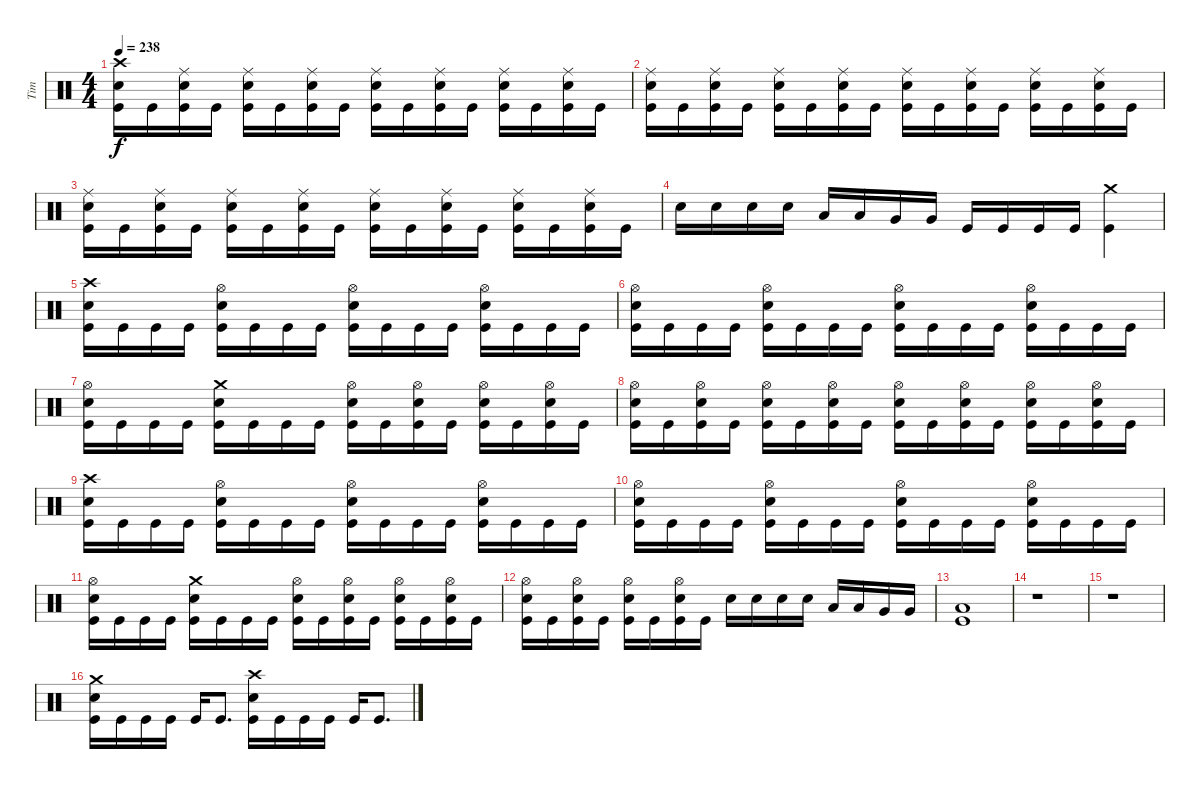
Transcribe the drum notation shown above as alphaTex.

\track ("Tim" "Tim") {instrument percussion}
\staff {score}
\articulation defaults
\ts (4 4)
\tempo 238
\clef neutral
\ks c
("Crash high (hit)" "Electric Snare (hit)" "Kick (hit)").16{dy f} "Kick (hit)".16 ("Ride (middle)" "Electric Snare (hit)" "Kick (hit)").16 "Kick (hit)".16 ("Ride (middle)" "Electric Snare (hit)" "Kick (hit)").16 "Kick (hit)".16 ("Ride (middle)" "Electric Snare (hit)" "Kick (hit)").16 "Kick (hit)".16 ("Ride (middle)" "Electric Snare (hit)" "Kick (hit)").16 "Kick (hit)".16 ("Ride (middle)" "Electric Snare (hit)" "Kick (hit)").16 "Kick (hit)".16 ("Ride (middle)" "Electric Snare (hit)" "Kick (hit)").16 "Kick (hit)".16 ("Ride (middle)" "Electric Snare (hit)" "Kick (hit)").16 "Kick (hit)".16 |
("Ride (middle)" "Electric Snare (hit)" "Kick (hit)").16 "Kick (hit)".16 ("Ride (middle)" "Electric Snare (hit)" "Kick (hit)").16 "Kick (hit)".16 ("Ride (middle)" "Electric Snare (hit)" "Kick (hit)").16 "Kick (hit)".16 ("Ride (middle)" "Electric Snare (hit)" "Kick (hit)").16 "Kick (hit)".16 ("Ride (middle)" "Electric Snare (hit)" "Kick (hit)").16 "Kick (hit)".16 ("Ride (middle)" "Electric Snare (hit)" "Kick (hit)").16 "Kick (hit)".16 ("Ride (middle)" "Electric Snare (hit)" "Kick (hit)").16 "Kick (hit)".16 ("Ride (middle)" "Electric Snare (hit)" "Kick (hit)").16 "Kick (hit)".16 |
("Ride (middle)" "Electric Snare (hit)" "Kick (hit)").16 "Kick (hit)".16 ("Ride (middle)" "Electric Snare (hit)" "Kick (hit)").16 "Kick (hit)".16 ("Ride (middle)" "Electric Snare (hit)" "Kick (hit)").16 "Kick (hit)".16 ("Ride (middle)" "Electric Snare (hit)" "Kick (hit)").16 "Kick (hit)".16 ("Ride (middle)" "Electric Snare (hit)" "Kick (hit)").16 "Kick (hit)".16 ("Ride (middle)" "Electric Snare (hit)" "Kick (hit)").16 "Kick (hit)".16 ("Ride (middle)" "Electric Snare (hit)" "Kick (hit)").16 "Kick (hit)".16 ("Ride (middle)" "Electric Snare (hit)" "Kick (hit)").16 "Kick (hit)".16 |
"Electric Snare (hit)".16 "Electric Snare (hit)".16 "Electric Snare (hit)".16 "Electric Snare (hit)".16 "Low Tom (hit)".16 "Low Tom (hit)".16 "Very Low Tom (hit)".16 "Very Low Tom (hit)".16 "Kick (hit)".16 "Kick (hit)".16 "Kick (hit)".16 "Kick (hit)".16 ("Crash medium (hit)" "Kick (hit)").4 |
("Crash high (hit)" "Electric Snare (hit)" "Kick (hit)").16 "Kick (hit)".16 "Kick (hit)".16 "Kick (hit)".16 ("Hi-Hat (open)" "Electric Snare (hit)" "Kick (hit)").16 "Kick (hit)".16 "Kick (hit)".16 "Kick (hit)".16 ("Hi-Hat (open)" "Electric Snare (hit)" "Kick (hit)").16 "Kick (hit)".16 "Kick (hit)".16 "Kick (hit)".16 ("Hi-Hat (open)" "Electric Snare (hit)" "Kick (hit)").16 "Kick (hit)".16 "Kick (hit)".16 "Kick (hit)".16 |
("Hi-Hat (open)" "Electric Snare (hit)" "Kick (hit)").16 "Kick (hit)".16 "Kick (hit)".16 "Kick (hit)".16 ("Hi-Hat (open)" "Electric Snare (hit)" "Kick (hit)").16 "Kick (hit)".16 "Kick (hit)".16 "Kick (hit)".16 ("Hi-Hat (open)" "Electric Snare (hit)" "Kick (hit)").16 "Kick (hit)".16 "Kick (hit)".16 "Kick (hit)".16 ("Hi-Hat (open)" "Electric Snare (hit)" "Kick (hit)").16 "Kick (hit)".16 "Kick (hit)".16 "Kick (hit)".16 |
("Hi-Hat (open)" "Electric Snare (hit)" "Kick (hit)").16 "Kick (hit)".16 "Kick (hit)".16 "Kick (hit)".16 ("Crash medium (hit)" "Electric Snare (hit)" "Kick (hit)").16 "Kick (hit)".16 "Kick (hit)".16 "Kick (hit)".16 ("Hi-Hat (open)" "Electric Snare (hit)" "Kick (hit)").16 "Kick (hit)".16 ("Hi-Hat (open)" "Electric Snare (hit)" "Kick (hit)").16 "Kick (hit)".16 ("Hi-Hat (open)" "Electric Snare (hit)" "Kick (hit)").16 "Kick (hit)".16 ("Hi-Hat (open)" "Electric Snare (hit)" "Kick (hit)").16 "Kick (hit)".16 |
("Hi-Hat (open)" "Electric Snare (hit)" "Kick (hit)").16 "Kick (hit)".16 ("Hi-Hat (open)" "Electric Snare (hit)" "Kick (hit)").16 "Kick (hit)".16 ("Hi-Hat (open)" "Electric Snare (hit)" "Kick (hit)").16 "Kick (hit)".16 ("Hi-Hat (open)" "Electric Snare (hit)" "Kick (hit)").16 "Kick (hit)".16 ("Hi-Hat (open)" "Electric Snare (hit)" "Kick (hit)").16 "Kick (hit)".16 ("Hi-Hat (open)" "Electric Snare (hit)" "Kick (hit)").16 "Kick (hit)".16 ("Hi-Hat (open)" "Electric Snare (hit)" "Kick (hit)").16 "Kick (hit)".16 ("Hi-Hat (open)" "Electric Snare (hit)" "Kick (hit)").16 "Kick (hit)".16 |
("Crash high (hit)" "Electric Snare (hit)" "Kick (hit)").16 "Kick (hit)".16 "Kick (hit)".16 "Kick (hit)".16 ("Hi-Hat (open)" "Electric Snare (hit)" "Kick (hit)").16 "Kick (hit)".16 "Kick (hit)".16 "Kick (hit)".16 ("Hi-Hat (open)" "Electric Snare (hit)" "Kick (hit)").16 "Kick (hit)".16 "Kick (hit)".16 "Kick (hit)".16 ("Hi-Hat (open)" "Electric Snare (hit)" "Kick (hit)").16 "Kick (hit)".16 "Kick (hit)".16 "Kick (hit)".16 |
("Hi-Hat (open)" "Electric Snare (hit)" "Kick (hit)").16 "Kick (hit)".16 "Kick (hit)".16 "Kick (hit)".16 ("Hi-Hat (open)" "Electric Snare (hit)" "Kick (hit)").16 "Kick (hit)".16 "Kick (hit)".16 "Kick (hit)".16 ("Hi-Hat (open)" "Electric Snare (hit)" "Kick (hit)").16 "Kick (hit)".16 "Kick (hit)".16 "Kick (hit)".16 ("Hi-Hat (open)" "Electric Snare (hit)" "Kick (hit)").16 "Kick (hit)".16 "Kick (hit)".16 "Kick (hit)".16 |
("Hi-Hat (open)" "Electric Snare (hit)" "Kick (hit)").16 "Kick (hit)".16 "Kick (hit)".16 "Kick (hit)".16 ("Crash medium (hit)" "Electric Snare (hit)" "Kick (hit)").16 "Kick (hit)".16 "Kick (hit)".16 "Kick (hit)".16 ("Hi-Hat (open)" "Electric Snare (hit)" "Kick (hit)").16 "Kick (hit)".16 ("Hi-Hat (open)" "Electric Snare (hit)" "Kick (hit)").16 "Kick (hit)".16 ("Hi-Hat (open)" "Electric Snare (hit)" "Kick (hit)").16 "Kick (hit)".16 ("Hi-Hat (open)" "Electric Snare (hit)" "Kick (hit)").16 "Kick (hit)".16 |
("Hi-Hat (open)" "Electric Snare (hit)" "Kick (hit)").16 "Kick (hit)".16 ("Hi-Hat (open)" "Electric Snare (hit)" "Kick (hit)").16 "Kick (hit)".16 ("Hi-Hat (open)" "Electric Snare (hit)" "Kick (hit)").16 "Kick (hit)".16 ("Hi-Hat (open)" "Electric Snare (hit)" "Kick (hit)").16 "Kick (hit)".16 "Electric Snare (hit)".16 "Electric Snare (hit)".16 "Electric Snare (hit)".16 "Electric Snare (hit)".16 "Low Tom (hit)".16 "Low Tom (hit)".16 "Very Low Tom (hit)".16 "Very Low Tom (hit)".16 |
("Low Floor Tom (hit)" "Kick (hit)").1 |
r.1 |
r.1 |
("Crash medium (hit)" "Electric Snare (hit)" "Kick (hit)").16 "Kick (hit)".16 "Kick (hit)".16 "Kick (hit)".16 "Kick (hit)".16 "Kick (hit)".8{d} ("Crash high (hit)" "Electric Snare (hit)" "Kick (hit)").16 "Kick (hit)".16 "Kick (hit)".16 "Kick (hit)".16 "Kick (hit)".16 "Kick (hit)".8{d}
